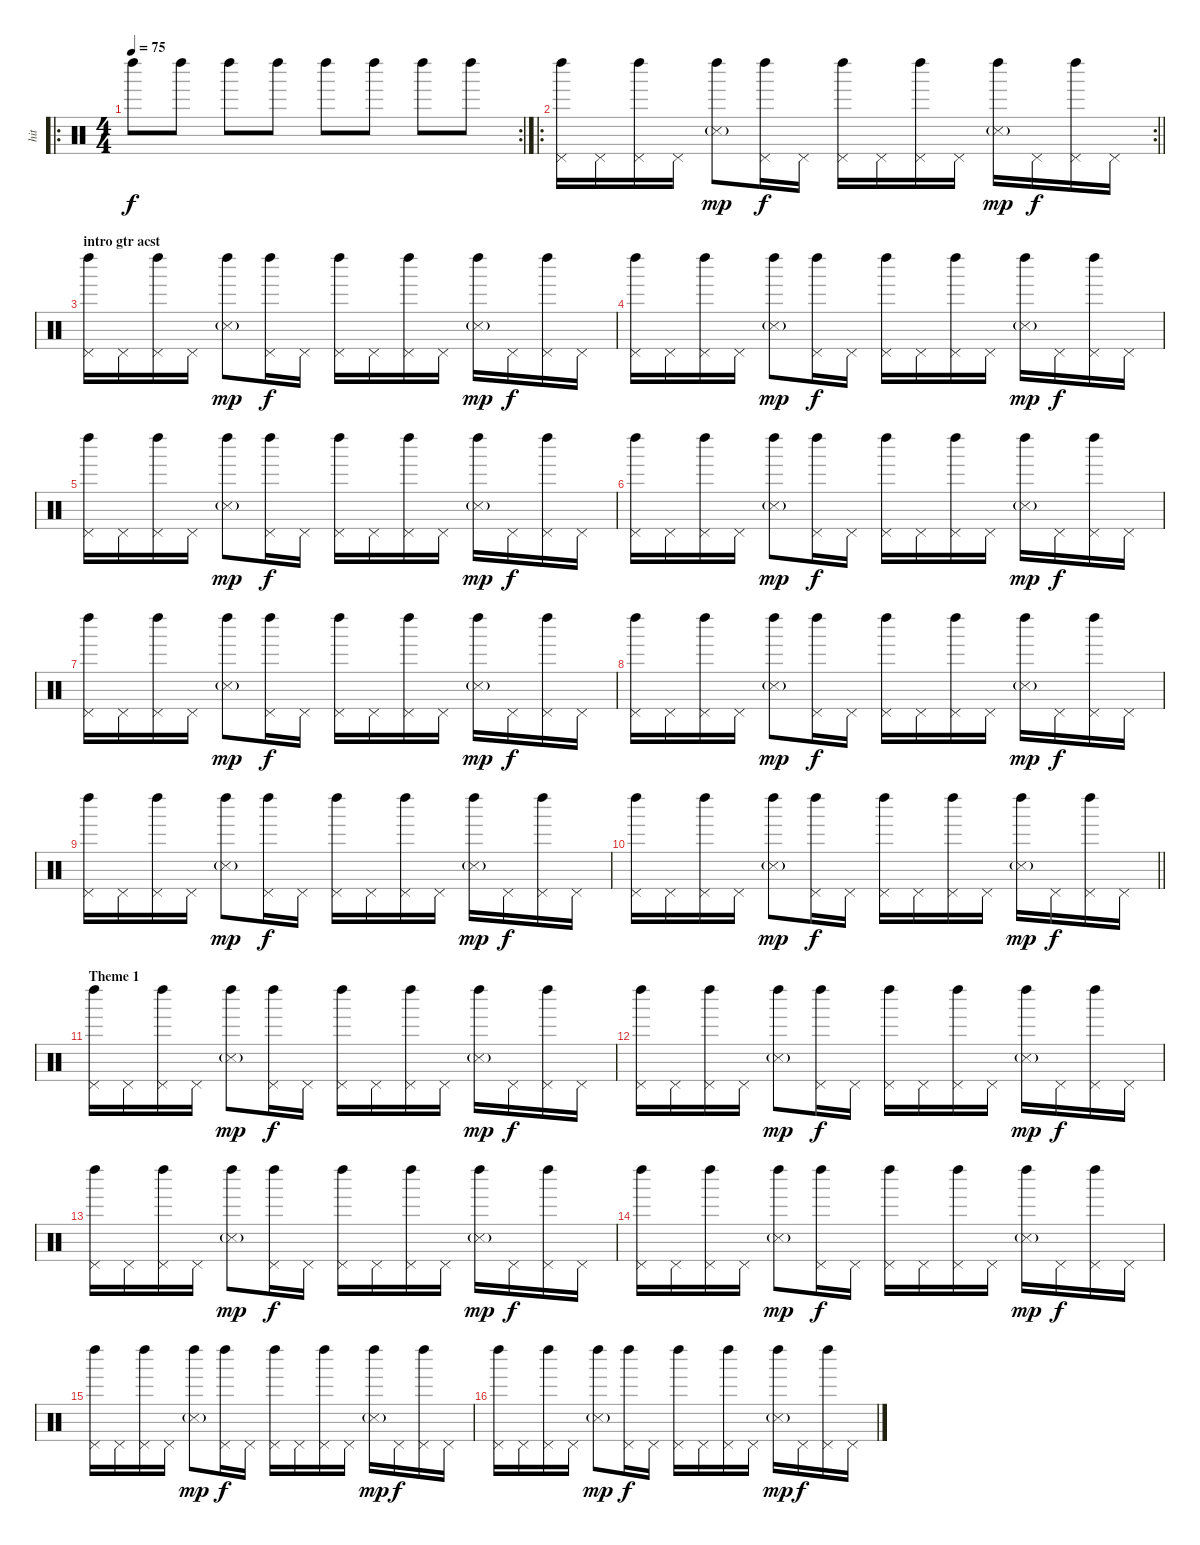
\track ("hit" "hit") {instrument percussion}
\staff {score}
\articulation defaults
\ro
\rc 2
\ts (4 4)
\tempo 75
\clef neutral
\ks c "Left Maraca (hit)".8{dy f} "Left Maraca (hit)".8 "Left Maraca (hit)".8 "Left Maraca (hit)".8 "Left Maraca (hit)".8 "Left Maraca (hit)".8 "Left Maraca (hit)".8 "Left Maraca (hit)".8
|
\ro
\rc 2
\barLineRight lightlight
("Pedal Hi-Hat (hit)" "Left Maraca (hit)").16 "Pedal Hi-Hat (hit)".16 ("Pedal Hi-Hat (hit)" "Left Maraca (hit)").16 "Pedal Hi-Hat (hit)".16 ("Metronome (hit)"{g} "Left Maraca (hit)").8{dy mp} ("Pedal Hi-Hat (hit)" "Left Maraca (hit)").16{dy f} "Pedal Hi-Hat (hit)".16 ("Pedal Hi-Hat (hit)" "Left Maraca (hit)").16 "Pedal Hi-Hat (hit)".16 ("Pedal Hi-Hat (hit)" "Left Maraca (hit)").16 "Pedal Hi-Hat (hit)".16 ("Metronome (hit)"{g} "Left Maraca (hit)").16{dy mp} "Pedal Hi-Hat (hit)".16{dy f} ("Pedal Hi-Hat (hit)" "Left Maraca (hit)").16 "Pedal Hi-Hat (hit)".16 |
\section ("" "intro gtr acst")
("Pedal Hi-Hat (hit)" "Left Maraca (hit)").16 "Pedal Hi-Hat (hit)".16 ("Pedal Hi-Hat (hit)" "Left Maraca (hit)").16 "Pedal Hi-Hat (hit)".16 ("Metronome (hit)"{g} "Left Maraca (hit)").8{dy mp} ("Pedal Hi-Hat (hit)" "Left Maraca (hit)").16{dy f} "Pedal Hi-Hat (hit)".16 ("Pedal Hi-Hat (hit)" "Left Maraca (hit)").16 "Pedal Hi-Hat (hit)".16 ("Pedal Hi-Hat (hit)" "Left Maraca (hit)").16 "Pedal Hi-Hat (hit)".16 ("Metronome (hit)"{g} "Left Maraca (hit)").16{dy mp} "Pedal Hi-Hat (hit)".16{dy f} ("Pedal Hi-Hat (hit)" "Left Maraca (hit)").16 "Pedal Hi-Hat (hit)".16 |
("Pedal Hi-Hat (hit)" "Left Maraca (hit)").16 "Pedal Hi-Hat (hit)".16 ("Pedal Hi-Hat (hit)" "Left Maraca (hit)").16 "Pedal Hi-Hat (hit)".16 ("Metronome (hit)"{g} "Left Maraca (hit)").8{dy mp} ("Pedal Hi-Hat (hit)" "Left Maraca (hit)").16{dy f} "Pedal Hi-Hat (hit)".16 ("Pedal Hi-Hat (hit)" "Left Maraca (hit)").16 "Pedal Hi-Hat (hit)".16 ("Pedal Hi-Hat (hit)" "Left Maraca (hit)").16 "Pedal Hi-Hat (hit)".16 ("Metronome (hit)"{g} "Left Maraca (hit)").16{dy mp} "Pedal Hi-Hat (hit)".16{dy f} ("Pedal Hi-Hat (hit)" "Left Maraca (hit)").16 "Pedal Hi-Hat (hit)".16 |
("Pedal Hi-Hat (hit)" "Left Maraca (hit)").16 "Pedal Hi-Hat (hit)".16 ("Pedal Hi-Hat (hit)" "Left Maraca (hit)").16 "Pedal Hi-Hat (hit)".16 ("Metronome (hit)"{g} "Left Maraca (hit)").8{dy mp} ("Pedal Hi-Hat (hit)" "Left Maraca (hit)").16{dy f} "Pedal Hi-Hat (hit)".16 ("Pedal Hi-Hat (hit)" "Left Maraca (hit)").16 "Pedal Hi-Hat (hit)".16 ("Pedal Hi-Hat (hit)" "Left Maraca (hit)").16 "Pedal Hi-Hat (hit)".16 ("Metronome (hit)"{g} "Left Maraca (hit)").16{dy mp} "Pedal Hi-Hat (hit)".16{dy f} ("Pedal Hi-Hat (hit)" "Left Maraca (hit)").16 "Pedal Hi-Hat (hit)".16 |
("Pedal Hi-Hat (hit)" "Left Maraca (hit)").16 "Pedal Hi-Hat (hit)".16 ("Pedal Hi-Hat (hit)" "Left Maraca (hit)").16 "Pedal Hi-Hat (hit)".16 ("Metronome (hit)"{g} "Left Maraca (hit)").8{dy mp} ("Pedal Hi-Hat (hit)" "Left Maraca (hit)").16{dy f} "Pedal Hi-Hat (hit)".16 ("Pedal Hi-Hat (hit)" "Left Maraca (hit)").16 "Pedal Hi-Hat (hit)".16 ("Pedal Hi-Hat (hit)" "Left Maraca (hit)").16 "Pedal Hi-Hat (hit)".16 ("Metronome (hit)"{g} "Left Maraca (hit)").16{dy mp} "Pedal Hi-Hat (hit)".16{dy f} ("Pedal Hi-Hat (hit)" "Left Maraca (hit)").16 "Pedal Hi-Hat (hit)".16 |
("Pedal Hi-Hat (hit)" "Left Maraca (hit)").16 "Pedal Hi-Hat (hit)".16 ("Pedal Hi-Hat (hit)" "Left Maraca (hit)").16 "Pedal Hi-Hat (hit)".16 ("Metronome (hit)"{g} "Left Maraca (hit)").8{dy mp} ("Pedal Hi-Hat (hit)" "Left Maraca (hit)").16{dy f} "Pedal Hi-Hat (hit)".16 ("Pedal Hi-Hat (hit)" "Left Maraca (hit)").16 "Pedal Hi-Hat (hit)".16 ("Pedal Hi-Hat (hit)" "Left Maraca (hit)").16 "Pedal Hi-Hat (hit)".16 ("Metronome (hit)"{g} "Left Maraca (hit)").16{dy mp} "Pedal Hi-Hat (hit)".16{dy f} ("Pedal Hi-Hat (hit)" "Left Maraca (hit)").16 "Pedal Hi-Hat (hit)".16 |
("Pedal Hi-Hat (hit)" "Left Maraca (hit)").16 "Pedal Hi-Hat (hit)".16 ("Pedal Hi-Hat (hit)" "Left Maraca (hit)").16 "Pedal Hi-Hat (hit)".16 ("Metronome (hit)"{g} "Left Maraca (hit)").8{dy mp} ("Pedal Hi-Hat (hit)" "Left Maraca (hit)").16{dy f} "Pedal Hi-Hat (hit)".16 ("Pedal Hi-Hat (hit)" "Left Maraca (hit)").16 "Pedal Hi-Hat (hit)".16 ("Pedal Hi-Hat (hit)" "Left Maraca (hit)").16 "Pedal Hi-Hat (hit)".16 ("Metronome (hit)"{g} "Left Maraca (hit)").16{dy mp} "Pedal Hi-Hat (hit)".16{dy f} ("Pedal Hi-Hat (hit)" "Left Maraca (hit)").16 "Pedal Hi-Hat (hit)".16 |
("Pedal Hi-Hat (hit)" "Left Maraca (hit)").16 "Pedal Hi-Hat (hit)".16 ("Pedal Hi-Hat (hit)" "Left Maraca (hit)").16 "Pedal Hi-Hat (hit)".16 ("Metronome (hit)"{g} "Left Maraca (hit)").8{dy mp} ("Pedal Hi-Hat (hit)" "Left Maraca (hit)").16{dy f} "Pedal Hi-Hat (hit)".16 ("Pedal Hi-Hat (hit)" "Left Maraca (hit)").16 "Pedal Hi-Hat (hit)".16 ("Pedal Hi-Hat (hit)" "Left Maraca (hit)").16 "Pedal Hi-Hat (hit)".16 ("Metronome (hit)"{g} "Left Maraca (hit)").16{dy mp} "Pedal Hi-Hat (hit)".16{dy f} ("Pedal Hi-Hat (hit)" "Left Maraca (hit)").16 "Pedal Hi-Hat (hit)".16 |
\barLineRight lightlight
("Pedal Hi-Hat (hit)" "Left Maraca (hit)").16 "Pedal Hi-Hat (hit)".16 ("Pedal Hi-Hat (hit)" "Left Maraca (hit)").16 "Pedal Hi-Hat (hit)".16 ("Metronome (hit)"{g} "Left Maraca (hit)").8{dy mp} ("Pedal Hi-Hat (hit)" "Left Maraca (hit)").16{dy f} "Pedal Hi-Hat (hit)".16 ("Pedal Hi-Hat (hit)" "Left Maraca (hit)").16 "Pedal Hi-Hat (hit)".16 ("Pedal Hi-Hat (hit)" "Left Maraca (hit)").16 "Pedal Hi-Hat (hit)".16 ("Metronome (hit)"{g} "Left Maraca (hit)").16{dy mp} "Pedal Hi-Hat (hit)".16{dy f} ("Pedal Hi-Hat (hit)" "Left Maraca (hit)").16 "Pedal Hi-Hat (hit)".16 |
\section ("" "Theme 1")
("Pedal Hi-Hat (hit)" "Left Maraca (hit)").16 "Pedal Hi-Hat (hit)".16 ("Pedal Hi-Hat (hit)" "Left Maraca (hit)").16 "Pedal Hi-Hat (hit)".16 ("Metronome (hit)"{g} "Left Maraca (hit)").8{dy mp} ("Pedal Hi-Hat (hit)" "Left Maraca (hit)").16{dy f} "Pedal Hi-Hat (hit)".16 ("Pedal Hi-Hat (hit)" "Left Maraca (hit)").16 "Pedal Hi-Hat (hit)".16 ("Pedal Hi-Hat (hit)" "Left Maraca (hit)").16 "Pedal Hi-Hat (hit)".16 ("Metronome (hit)"{g} "Left Maraca (hit)").16{dy mp} "Pedal Hi-Hat (hit)".16{dy f} ("Pedal Hi-Hat (hit)" "Left Maraca (hit)").16 "Pedal Hi-Hat (hit)".16 |
("Pedal Hi-Hat (hit)" "Left Maraca (hit)").16 "Pedal Hi-Hat (hit)".16 ("Pedal Hi-Hat (hit)" "Left Maraca (hit)").16 "Pedal Hi-Hat (hit)".16 ("Metronome (hit)"{g} "Left Maraca (hit)").8{dy mp} ("Pedal Hi-Hat (hit)" "Left Maraca (hit)").16{dy f} "Pedal Hi-Hat (hit)".16 ("Pedal Hi-Hat (hit)" "Left Maraca (hit)").16 "Pedal Hi-Hat (hit)".16 ("Pedal Hi-Hat (hit)" "Left Maraca (hit)").16 "Pedal Hi-Hat (hit)".16 ("Metronome (hit)"{g} "Left Maraca (hit)").16{dy mp} "Pedal Hi-Hat (hit)".16{dy f} ("Pedal Hi-Hat (hit)" "Left Maraca (hit)").16 "Pedal Hi-Hat (hit)".16 |
("Pedal Hi-Hat (hit)" "Left Maraca (hit)").16 "Pedal Hi-Hat (hit)".16 ("Pedal Hi-Hat (hit)" "Left Maraca (hit)").16 "Pedal Hi-Hat (hit)".16 ("Metronome (hit)"{g} "Left Maraca (hit)").8{dy mp} ("Pedal Hi-Hat (hit)" "Left Maraca (hit)").16{dy f} "Pedal Hi-Hat (hit)".16 ("Pedal Hi-Hat (hit)" "Left Maraca (hit)").16 "Pedal Hi-Hat (hit)".16 ("Pedal Hi-Hat (hit)" "Left Maraca (hit)").16 "Pedal Hi-Hat (hit)".16 ("Metronome (hit)"{g} "Left Maraca (hit)").16{dy mp} "Pedal Hi-Hat (hit)".16{dy f} ("Pedal Hi-Hat (hit)" "Left Maraca (hit)").16 "Pedal Hi-Hat (hit)".16 |
("Pedal Hi-Hat (hit)" "Left Maraca (hit)").16 "Pedal Hi-Hat (hit)".16 ("Pedal Hi-Hat (hit)" "Left Maraca (hit)").16 "Pedal Hi-Hat (hit)".16 ("Metronome (hit)"{g} "Left Maraca (hit)").8{dy mp} ("Pedal Hi-Hat (hit)" "Left Maraca (hit)").16{dy f} "Pedal Hi-Hat (hit)".16 ("Pedal Hi-Hat (hit)" "Left Maraca (hit)").16 "Pedal Hi-Hat (hit)".16 ("Pedal Hi-Hat (hit)" "Left Maraca (hit)").16 "Pedal Hi-Hat (hit)".16 ("Metronome (hit)"{g} "Left Maraca (hit)").16{dy mp} "Pedal Hi-Hat (hit)".16{dy f} ("Pedal Hi-Hat (hit)" "Left Maraca (hit)").16 "Pedal Hi-Hat (hit)".16 |
("Pedal Hi-Hat (hit)" "Left Maraca (hit)").16 "Pedal Hi-Hat (hit)".16 ("Pedal Hi-Hat (hit)" "Left Maraca (hit)").16 "Pedal Hi-Hat (hit)".16 ("Metronome (hit)"{g} "Left Maraca (hit)").8{dy mp} ("Pedal Hi-Hat (hit)" "Left Maraca (hit)").16{dy f} "Pedal Hi-Hat (hit)".16 ("Pedal Hi-Hat (hit)" "Left Maraca (hit)").16 "Pedal Hi-Hat (hit)".16 ("Pedal Hi-Hat (hit)" "Left Maraca (hit)").16 "Pedal Hi-Hat (hit)".16 ("Metronome (hit)"{g} "Left Maraca (hit)").16{dy mp} "Pedal Hi-Hat (hit)".16{dy f} ("Pedal Hi-Hat (hit)" "Left Maraca (hit)").16 "Pedal Hi-Hat (hit)".16 |
("Pedal Hi-Hat (hit)" "Left Maraca (hit)").16 "Pedal Hi-Hat (hit)".16 ("Pedal Hi-Hat (hit)" "Left Maraca (hit)").16 "Pedal Hi-Hat (hit)".16 ("Metronome (hit)"{g} "Left Maraca (hit)").8{dy mp} ("Pedal Hi-Hat (hit)" "Left Maraca (hit)").16{dy f} "Pedal Hi-Hat (hit)".16 ("Pedal Hi-Hat (hit)" "Left Maraca (hit)").16 "Pedal Hi-Hat (hit)".16 ("Pedal Hi-Hat (hit)" "Left Maraca (hit)").16 "Pedal Hi-Hat (hit)".16 ("Metronome (hit)"{g} "Left Maraca (hit)").16{dy mp} "Pedal Hi-Hat (hit)".16{dy f} ("Pedal Hi-Hat (hit)" "Left Maraca (hit)").16 "Pedal Hi-Hat (hit)".16
